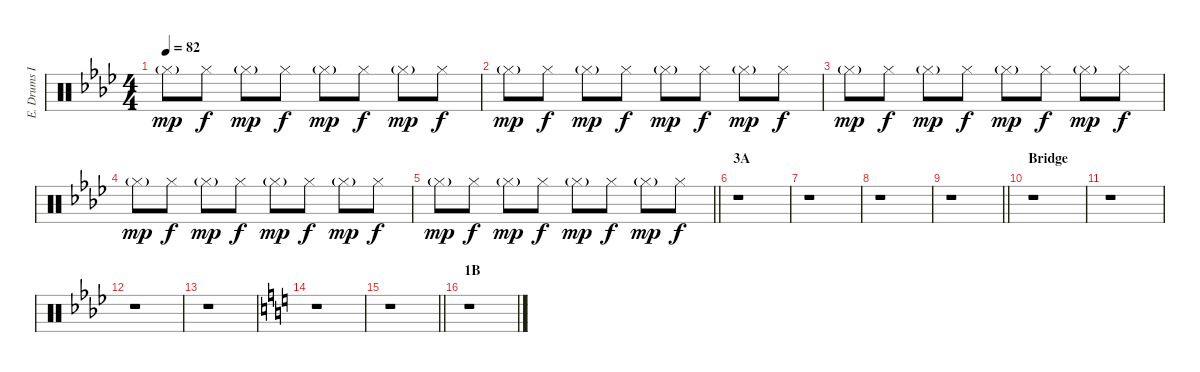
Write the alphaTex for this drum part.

\track ("E. Drums II" "E. Drums I") {instrument percussion}
\staff {score}
\articulation defaults
\ts (4 4)
\tempo 82
\clef neutral
\ks ab "Hi-Hat (closed)"{g}.8{dy mp} "Hi-Hat (closed)".8{dy f} "Hi-Hat (closed)"{g}.8{dy mp} "Hi-Hat (closed)".8{dy f} "Hi-Hat (closed)"{g}.8{dy mp} "Hi-Hat (closed)".8{dy f} "Hi-Hat (closed)"{g}.8{dy mp} "Hi-Hat (closed)".8{dy f}
|
"Hi-Hat (closed)"{g}.8{dy mp} "Hi-Hat (closed)".8{dy f} "Hi-Hat (closed)"{g}.8{dy mp} "Hi-Hat (closed)".8{dy f} "Hi-Hat (closed)"{g}.8{dy mp} "Hi-Hat (closed)".8{dy f} "Hi-Hat (closed)"{g}.8{dy mp} "Hi-Hat (closed)".8{dy f} |
"Hi-Hat (closed)"{g}.8{dy mp} "Hi-Hat (closed)".8{dy f} "Hi-Hat (closed)"{g}.8{dy mp} "Hi-Hat (closed)".8{dy f} "Hi-Hat (closed)"{g}.8{dy mp} "Hi-Hat (closed)".8{dy f} "Hi-Hat (closed)"{g}.8{dy mp} "Hi-Hat (closed)".8{dy f} |
"Hi-Hat (closed)"{g}.8{dy mp} "Hi-Hat (closed)".8{dy f} "Hi-Hat (closed)"{g}.8{dy mp} "Hi-Hat (closed)".8{dy f} "Hi-Hat (closed)"{g}.8{dy mp} "Hi-Hat (closed)".8{dy f} "Hi-Hat (closed)"{g}.8{dy mp} "Hi-Hat (closed)".8{dy f} |
\barLineRight lightlight "Hi-Hat (closed)"{g}.8{dy mp} "Hi-Hat (closed)".8{dy f} "Hi-Hat (closed)"{g}.8{dy mp} "Hi-Hat (closed)".8{dy f} "Hi-Hat (closed)"{g}.8{dy mp} "Hi-Hat (closed)".8{dy f} "Hi-Hat (closed)"{g}.8{dy mp} "Hi-Hat (closed)".8{dy f}
|
\section ("" "3A")
r.1 |
r.1 |
r.1 |
\barLineRight lightlight
r.1 |
\section ("" "Bridge")
r.1 |
r.1 |
r.1 |
r.1 |
\ks c
r.1 |
\barLineRight lightlight
r.1 |
\section ("" "1B")
r.1
